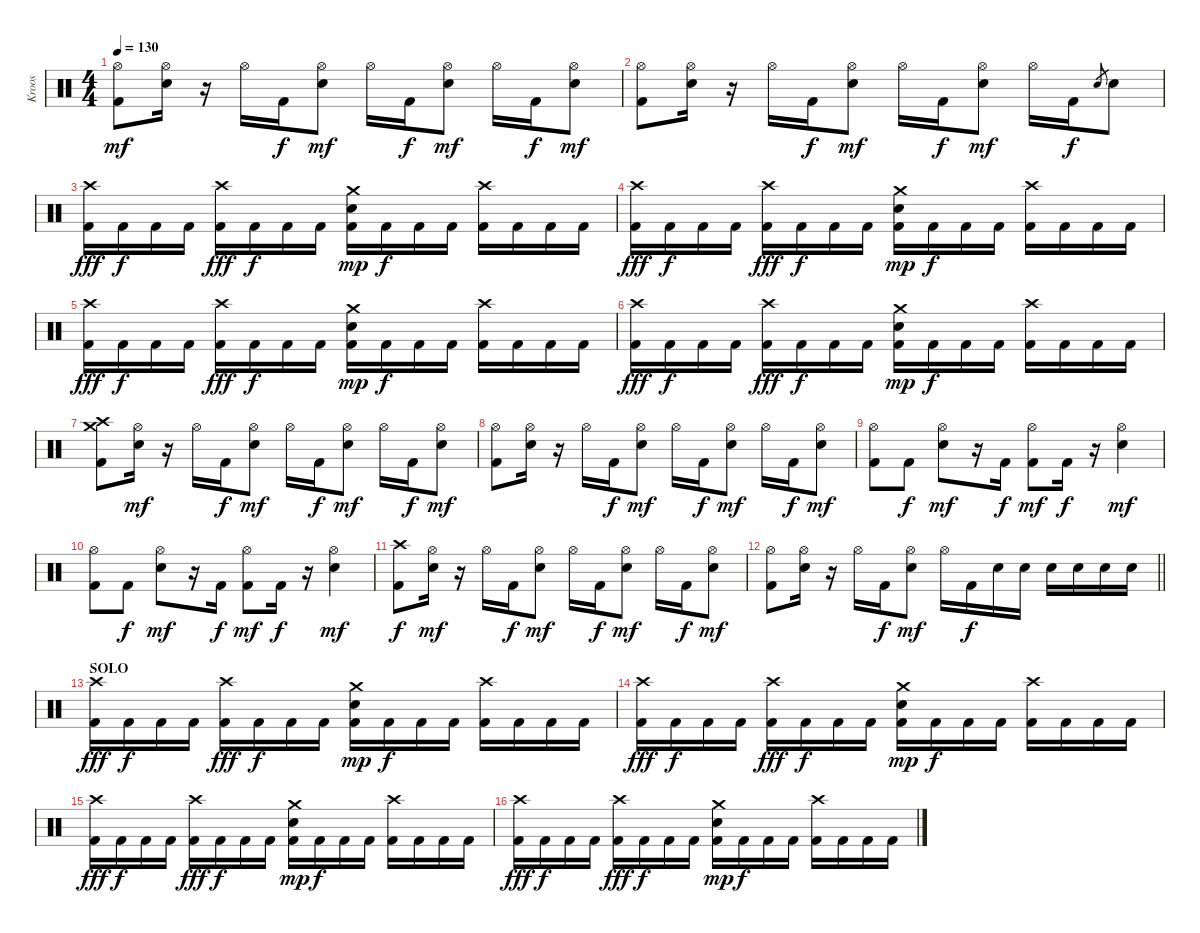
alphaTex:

\track ("Kroos" "Kroos") {instrument percussion}
\staff {score}
\articulation defaults
\ts (4 4)
\tempo 130
\clef neutral
\ks c
("Hi-Hat (open)" "Kick (hit) 2").8{dy mf} ("Hi-Hat (open)" "Electric Snare (hit)").16 r.16 "Hi-Hat (open)".16 "Kick (hit) 2".16{dy f} ("Hi-Hat (open)" "Electric Snare (hit)").8{dy mf} "Hi-Hat (open)".16 "Kick (hit) 2".16{dy f} ("Hi-Hat (open)" "Electric Snare (hit)").8{dy mf} "Hi-Hat (open)".16 "Kick (hit) 2".16{dy f} ("Hi-Hat (open)" "Electric Snare (hit)").8{dy mf} |
("Hi-Hat (open)" "Kick (hit) 2").8 ("Hi-Hat (open)" "Electric Snare (hit)").16 r.16 "Hi-Hat (open)".16 "Kick (hit) 2".16{dy f} ("Hi-Hat (open)" "Electric Snare (hit)").8{dy mf} "Hi-Hat (open)".16 "Kick (hit) 2".16{dy f} ("Hi-Hat (open)" "Electric Snare (hit)").8{dy mf} "Hi-Hat (open)".16 "Kick (hit) 2".16{dy f} "Electric Snare (hit)".8{gr} "Electric Snare (hit)".8 |
("Crash high (hit)" "Kick (hit) 2").16{dy fff} "Kick (hit) 2".16{dy f} "Kick (hit) 2".16 "Kick (hit) 2".16 ("Crash high (hit)" "Kick (hit) 2").16{dy fff} "Kick (hit) 2".16{dy f} "Kick (hit) 2".16 "Kick (hit) 2".16 ("Crash medium (hit)" "Electric Snare (hit)" "Kick (hit) 2").16{dy mp} "Kick (hit) 2".16{dy f} "Kick (hit) 2".16 "Kick (hit) 2".16 ("Crash high (hit)" "Kick (hit) 2").16 "Kick (hit) 2".16 "Kick (hit) 2".16 "Kick (hit) 2".16 |
("Crash high (hit)" "Kick (hit) 2").16{dy fff} "Kick (hit) 2".16{dy f} "Kick (hit) 2".16 "Kick (hit) 2".16 ("Crash high (hit)" "Kick (hit) 2").16{dy fff} "Kick (hit) 2".16{dy f} "Kick (hit) 2".16 "Kick (hit) 2".16 ("Crash medium (hit)" "Electric Snare (hit)" "Kick (hit) 2").16{dy mp} "Kick (hit) 2".16{dy f} "Kick (hit) 2".16 "Kick (hit) 2".16 ("Crash high (hit)" "Kick (hit) 2").16 "Kick (hit) 2".16 "Kick (hit) 2".16 "Kick (hit) 2".16 |
("Crash high (hit)" "Kick (hit) 2").16{dy fff} "Kick (hit) 2".16{dy f} "Kick (hit) 2".16 "Kick (hit) 2".16 ("Crash high (hit)" "Kick (hit) 2").16{dy fff} "Kick (hit) 2".16{dy f} "Kick (hit) 2".16 "Kick (hit) 2".16 ("Crash medium (hit)" "Electric Snare (hit)" "Kick (hit) 2").16{dy mp} "Kick (hit) 2".16{dy f} "Kick (hit) 2".16 "Kick (hit) 2".16 ("Crash high (hit)" "Kick (hit) 2").16 "Kick (hit) 2".16 "Kick (hit) 2".16 "Kick (hit) 2".16 |
("Crash high (hit)" "Kick (hit) 2").16{dy fff} "Kick (hit) 2".16{dy f} "Kick (hit) 2".16 "Kick (hit) 2".16 ("Crash high (hit)" "Kick (hit) 2").16{dy fff} "Kick (hit) 2".16{dy f} "Kick (hit) 2".16 "Kick (hit) 2".16 ("Crash medium (hit)" "Electric Snare (hit)" "Kick (hit) 2").16{dy mp} "Kick (hit) 2".16{dy f} "Kick (hit) 2".16 "Kick (hit) 2".16 ("Crash high (hit)" "Kick (hit) 2").16 "Kick (hit) 2".16 "Kick (hit) 2".16 "Kick (hit) 2".16 |
("Crash high (hit)" "Crash medium (hit)" "Kick (hit) 2").8 ("Hi-Hat (open)" "Electric Snare (hit)").16{dy mf} r.16 "Hi-Hat (open)".16 "Kick (hit) 2".16{dy f} ("Hi-Hat (open)" "Electric Snare (hit)").8{dy mf} "Hi-Hat (open)".16 "Kick (hit) 2".16{dy f} ("Hi-Hat (open)" "Electric Snare (hit)").8{dy mf} "Hi-Hat (open)".16 "Kick (hit) 2".16{dy f} ("Hi-Hat (open)" "Electric Snare (hit)").8{dy mf} |
("Hi-Hat (open)" "Kick (hit) 2").8 ("Hi-Hat (open)" "Electric Snare (hit)").16 r.16 "Hi-Hat (open)".16 "Kick (hit) 2".16{dy f} ("Hi-Hat (open)" "Electric Snare (hit)").8{dy mf} "Hi-Hat (open)".16 "Kick (hit) 2".16{dy f} ("Hi-Hat (open)" "Electric Snare (hit)").8{dy mf} "Hi-Hat (open)".16 "Kick (hit) 2".16{dy f} ("Hi-Hat (open)" "Electric Snare (hit)").8{dy mf} |
("Hi-Hat (open)" "Kick (hit) 2").8 "Kick (hit) 2".8{dy f} ("Hi-Hat (open)" "Electric Snare (hit)").8{dy mf} r.16 "Kick (hit) 2".16{dy f} ("Hi-Hat (open)" "Kick (hit) 2").8{dy mf} "Kick (hit) 2".16{dy f} r.16 ("Hi-Hat (open)" "Electric Snare (hit)").4{dy mf} |
("Hi-Hat (open)" "Kick (hit) 2").8 "Kick (hit) 2".8{dy f} ("Hi-Hat (open)" "Electric Snare (hit)").8{dy mf} r.16 "Kick (hit) 2".16{dy f} ("Hi-Hat (open)" "Kick (hit) 2").8{dy mf} "Kick (hit) 2".16{dy f} r.16 ("Hi-Hat (open)" "Electric Snare (hit)").4{dy mf} |
("Crash high (hit)" "Kick (hit) 2").8{dy f} ("Hi-Hat (open)" "Electric Snare (hit)").16{dy mf} r.16 "Hi-Hat (open)".16 "Kick (hit) 2".16{dy f} ("Hi-Hat (open)" "Electric Snare (hit)").8{dy mf} "Hi-Hat (open)".16 "Kick (hit) 2".16{dy f} ("Hi-Hat (open)" "Electric Snare (hit)").8{dy mf} "Hi-Hat (open)".16 "Kick (hit) 2".16{dy f} ("Hi-Hat (open)" "Electric Snare (hit)").8{dy mf} |
\barLineRight lightlight
("Hi-Hat (open)" "Kick (hit) 2").8 ("Hi-Hat (open)" "Electric Snare (hit)").16 r.16 "Hi-Hat (open)".16 "Kick (hit) 2".16{dy f} ("Hi-Hat (open)" "Electric Snare (hit)").8{dy mf} "Hi-Hat (open)".16 "Kick (hit) 2".16{dy f} "Electric Snare (hit)".16 "Electric Snare (hit)".16 "Electric Snare (hit)".16 "Electric Snare (hit)".16 "Electric Snare (hit)".16 "Electric Snare (hit)".16 |
\section ("" "SOLO")
("Crash high (hit)" "Kick (hit) 2").16{dy fff} "Kick (hit) 2".16{dy f} "Kick (hit) 2".16 "Kick (hit) 2".16 ("Crash high (hit)" "Kick (hit) 2").16{dy fff} "Kick (hit) 2".16{dy f} "Kick (hit) 2".16 "Kick (hit) 2".16 ("Crash medium (hit)" "Electric Snare (hit)" "Kick (hit) 2").16{dy mp} "Kick (hit) 2".16{dy f} "Kick (hit) 2".16 "Kick (hit) 2".16 ("Crash high (hit)" "Kick (hit) 2").16 "Kick (hit) 2".16 "Kick (hit) 2".16 "Kick (hit) 2".16 |
("Crash high (hit)" "Kick (hit) 2").16{dy fff} "Kick (hit) 2".16{dy f} "Kick (hit) 2".16 "Kick (hit) 2".16 ("Crash high (hit)" "Kick (hit) 2").16{dy fff} "Kick (hit) 2".16{dy f} "Kick (hit) 2".16 "Kick (hit) 2".16 ("Crash medium (hit)" "Electric Snare (hit)" "Kick (hit) 2").16{dy mp} "Kick (hit) 2".16{dy f} "Kick (hit) 2".16 "Kick (hit) 2".16 ("Crash high (hit)" "Kick (hit) 2").16 "Kick (hit) 2".16 "Kick (hit) 2".16 "Kick (hit) 2".16 |
("Crash high (hit)" "Kick (hit) 2").16{dy fff} "Kick (hit) 2".16{dy f} "Kick (hit) 2".16 "Kick (hit) 2".16 ("Crash high (hit)" "Kick (hit) 2").16{dy fff} "Kick (hit) 2".16{dy f} "Kick (hit) 2".16 "Kick (hit) 2".16 ("Crash medium (hit)" "Electric Snare (hit)" "Kick (hit) 2").16{dy mp} "Kick (hit) 2".16{dy f} "Kick (hit) 2".16 "Kick (hit) 2".16 ("Crash high (hit)" "Kick (hit) 2").16 "Kick (hit) 2".16 "Kick (hit) 2".16 "Kick (hit) 2".16 |
("Crash high (hit)" "Kick (hit) 2").16{dy fff} "Kick (hit) 2".16{dy f} "Kick (hit) 2".16 "Kick (hit) 2".16 ("Crash high (hit)" "Kick (hit) 2").16{dy fff} "Kick (hit) 2".16{dy f} "Kick (hit) 2".16 "Kick (hit) 2".16 ("Crash medium (hit)" "Electric Snare (hit)" "Kick (hit) 2").16{dy mp} "Kick (hit) 2".16{dy f} "Kick (hit) 2".16 "Kick (hit) 2".16 ("Crash high (hit)" "Kick (hit) 2").16 "Kick (hit) 2".16 "Kick (hit) 2".16 "Kick (hit) 2".16
